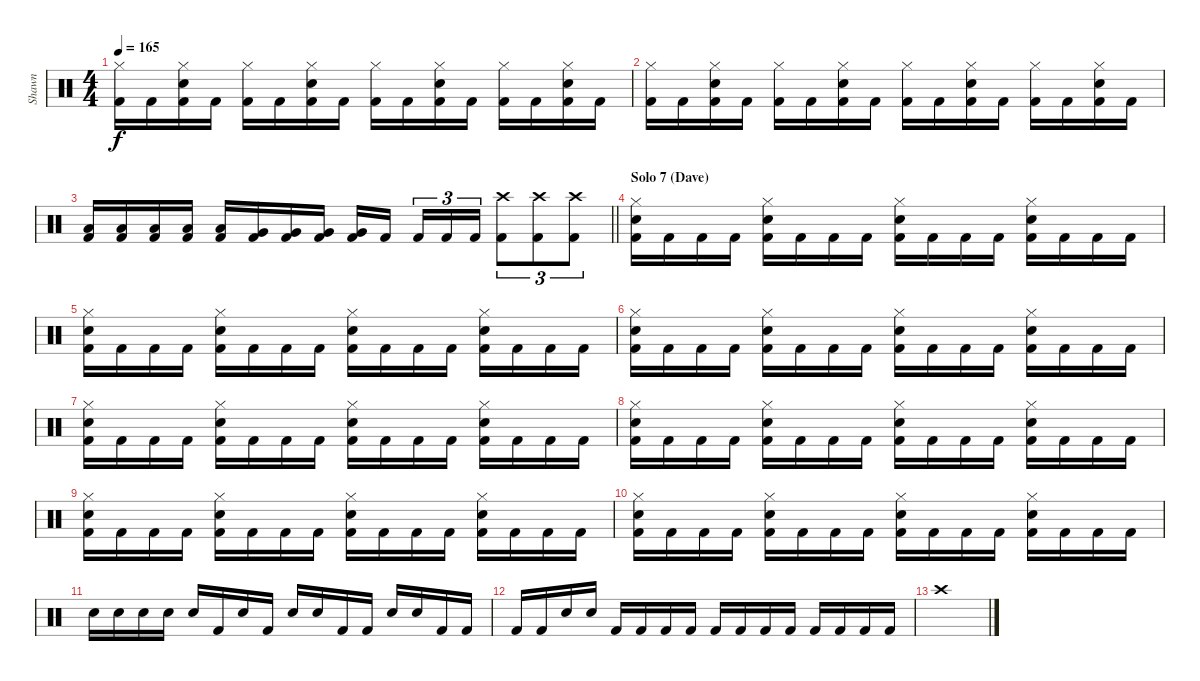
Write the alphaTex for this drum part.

\track ("Shawn" "Shawn") {instrument percussion}
\staff {score}
\articulation defaults
\ts (4 4)
\tempo 165
\clef neutral
\ks c
("Hi-Hat (closed)" "Kick (hit) 2").16{dy f} "Kick (hit) 2".16 ("Hi-Hat (closed)" "Snare (hit) 2" "Kick (hit) 2").16 "Kick (hit) 2".16 ("Hi-Hat (closed)" "Kick (hit) 2").16 "Kick (hit) 2".16 ("Hi-Hat (closed)" "Snare (hit) 2" "Kick (hit) 2").16 "Kick (hit) 2".16 ("Hi-Hat (closed)" "Kick (hit) 2").16 "Kick (hit) 2".16 ("Hi-Hat (closed)" "Snare (hit) 2" "Kick (hit) 2").16 "Kick (hit) 2".16 ("Hi-Hat (closed)" "Kick (hit) 2").16 "Kick (hit) 2".16 ("Hi-Hat (closed)" "Snare (hit) 2" "Kick (hit) 2").16 "Kick (hit) 2".16 |
("Hi-Hat (closed)" "Kick (hit) 2").16 "Kick (hit) 2".16 ("Hi-Hat (closed)" "Snare (hit) 2" "Kick (hit) 2").16 "Kick (hit) 2".16 ("Hi-Hat (closed)" "Kick (hit) 2").16 "Kick (hit) 2".16 ("Hi-Hat (closed)" "Snare (hit) 2" "Kick (hit) 2").16 "Kick (hit) 2".16 ("Hi-Hat (closed)" "Kick (hit) 2").16 "Kick (hit) 2".16 ("Hi-Hat (closed)" "Snare (hit) 2" "Kick (hit) 2").16 "Kick (hit) 2".16 ("Hi-Hat (closed)" "Kick (hit) 2").16 "Kick (hit) 2".16 ("Hi-Hat (closed)" "Snare (hit) 2" "Kick (hit) 2").16 "Kick (hit) 2".16 |
\barLineRight lightlight
("Low Tom (hit)" "Kick (hit) 2").16 ("Low Tom (hit)" "Kick (hit) 2").16 ("Low Tom (hit)" "Kick (hit) 2").16 ("Low Tom (hit)" "Kick (hit) 2").16 ("Low Tom (hit)" "Kick (hit) 2").16 ("Very Low Tom (hit)" "Kick (hit) 2").16 ("Very Low Tom (hit)" "Kick (hit) 2").16 ("Very Low Tom (hit)" "Kick (hit) 2").16 ("Very Low Tom (hit)" "Kick (hit) 2").16 "Kick (hit) 2".16{beam splitsecondary} "Kick (hit) 2".16{tu (3 2)} "Kick (hit) 2".16{tu (3 2)} "Kick (hit) 2".16{tu (3 2)} ("Crash high (hit)" "Kick (hit) 2").8{tu (3 2)} ("Crash high (hit)" "Kick (hit) 2").8{tu (3 2)} ("Crash high (hit)" "Kick (hit) 2").8{tu (3 2)} |
\section ("" "Solo 7 (Dave)")
("Hi-Hat (closed)" "Snare (hit) 2" "Kick (hit) 2").16 "Kick (hit) 2".16 "Kick (hit) 2".16 "Kick (hit) 2".16 ("Hi-Hat (closed)" "Snare (hit) 2" "Kick (hit) 2").16 "Kick (hit) 2".16 "Kick (hit) 2".16 "Kick (hit) 2".16 ("Hi-Hat (closed)" "Snare (hit) 2" "Kick (hit) 2").16 "Kick (hit) 2".16 "Kick (hit) 2".16 "Kick (hit) 2".16 ("Hi-Hat (closed)" "Snare (hit) 2" "Kick (hit) 2").16 "Kick (hit) 2".16 "Kick (hit) 2".16 "Kick (hit) 2".16 |
("Hi-Hat (closed)" "Snare (hit) 2" "Kick (hit) 2").16 "Kick (hit) 2".16 "Kick (hit) 2".16 "Kick (hit) 2".16 ("Hi-Hat (closed)" "Snare (hit) 2" "Kick (hit) 2").16 "Kick (hit) 2".16 "Kick (hit) 2".16 "Kick (hit) 2".16 ("Hi-Hat (closed)" "Snare (hit) 2" "Kick (hit) 2").16 "Kick (hit) 2".16 "Kick (hit) 2".16 "Kick (hit) 2".16 ("Hi-Hat (closed)" "Snare (hit) 2" "Kick (hit) 2").16 "Kick (hit) 2".16 "Kick (hit) 2".16 "Kick (hit) 2".16 |
("Hi-Hat (closed)" "Snare (hit) 2" "Kick (hit) 2").16 "Kick (hit) 2".16 "Kick (hit) 2".16 "Kick (hit) 2".16 ("Hi-Hat (closed)" "Snare (hit) 2" "Kick (hit) 2").16 "Kick (hit) 2".16 "Kick (hit) 2".16 "Kick (hit) 2".16 ("Hi-Hat (closed)" "Snare (hit) 2" "Kick (hit) 2").16 "Kick (hit) 2".16 "Kick (hit) 2".16 "Kick (hit) 2".16 ("Hi-Hat (closed)" "Snare (hit) 2" "Kick (hit) 2").16 "Kick (hit) 2".16 "Kick (hit) 2".16 "Kick (hit) 2".16 |
("Hi-Hat (closed)" "Snare (hit) 2" "Kick (hit) 2").16 "Kick (hit) 2".16 "Kick (hit) 2".16 "Kick (hit) 2".16 ("Hi-Hat (closed)" "Snare (hit) 2" "Kick (hit) 2").16 "Kick (hit) 2".16 "Kick (hit) 2".16 "Kick (hit) 2".16 ("Hi-Hat (closed)" "Snare (hit) 2" "Kick (hit) 2").16 "Kick (hit) 2".16 "Kick (hit) 2".16 "Kick (hit) 2".16 ("Hi-Hat (closed)" "Snare (hit) 2" "Kick (hit) 2").16 "Kick (hit) 2".16 "Kick (hit) 2".16 "Kick (hit) 2".16 |
("Hi-Hat (closed)" "Snare (hit) 2" "Kick (hit) 2").16 "Kick (hit) 2".16 "Kick (hit) 2".16 "Kick (hit) 2".16 ("Hi-Hat (closed)" "Snare (hit) 2" "Kick (hit) 2").16 "Kick (hit) 2".16 "Kick (hit) 2".16 "Kick (hit) 2".16 ("Hi-Hat (closed)" "Snare (hit) 2" "Kick (hit) 2").16 "Kick (hit) 2".16 "Kick (hit) 2".16 "Kick (hit) 2".16 ("Hi-Hat (closed)" "Snare (hit) 2" "Kick (hit) 2").16 "Kick (hit) 2".16 "Kick (hit) 2".16 "Kick (hit) 2".16 |
("Hi-Hat (closed)" "Snare (hit) 2" "Kick (hit) 2").16 "Kick (hit) 2".16 "Kick (hit) 2".16 "Kick (hit) 2".16 ("Hi-Hat (closed)" "Snare (hit) 2" "Kick (hit) 2").16 "Kick (hit) 2".16 "Kick (hit) 2".16 "Kick (hit) 2".16 ("Hi-Hat (closed)" "Snare (hit) 2" "Kick (hit) 2").16 "Kick (hit) 2".16 "Kick (hit) 2".16 "Kick (hit) 2".16 ("Hi-Hat (closed)" "Snare (hit) 2" "Kick (hit) 2").16 "Kick (hit) 2".16 "Kick (hit) 2".16 "Kick (hit) 2".16 |
("Hi-Hat (closed)" "Snare (hit) 2" "Kick (hit) 2").16 "Kick (hit) 2".16 "Kick (hit) 2".16 "Kick (hit) 2".16 ("Hi-Hat (closed)" "Snare (hit) 2" "Kick (hit) 2").16 "Kick (hit) 2".16 "Kick (hit) 2".16 "Kick (hit) 2".16 ("Hi-Hat (closed)" "Snare (hit) 2" "Kick (hit) 2").16 "Kick (hit) 2".16 "Kick (hit) 2".16 "Kick (hit) 2".16 ("Hi-Hat (closed)" "Snare (hit) 2" "Kick (hit) 2").16 "Kick (hit) 2".16 "Kick (hit) 2".16 "Kick (hit) 2".16 |
"Snare (hit) 2".16 "Snare (hit) 2".16 "Snare (hit) 2".16 "Snare (hit) 2".16 "Snare (hit) 2".16 "Kick (hit) 2".16 "Snare (hit) 2".16 "Kick (hit) 2".16 "Snare (hit) 2".16 "Snare (hit) 2".16 "Kick (hit) 2".16 "Kick (hit) 2".16 "Snare (hit) 2".16 "Snare (hit) 2".16 "Kick (hit) 2".16 "Kick (hit) 2".16 |
"Kick (hit) 2".16 "Kick (hit) 2".16 "Snare (hit) 2".16 "Snare (hit) 2".16 "Kick (hit) 2".16 "Kick (hit) 2".16 "Kick (hit) 2".16 "Kick (hit) 2".16 "Kick (hit) 2".16 "Kick (hit) 2".16 "Kick (hit) 2".16 "Kick (hit) 2".16 "Kick (hit) 2".16 "Kick (hit) 2".16 "Kick (hit) 2".16 "Kick (hit) 2".16 |
"Crash high (hit)".1
